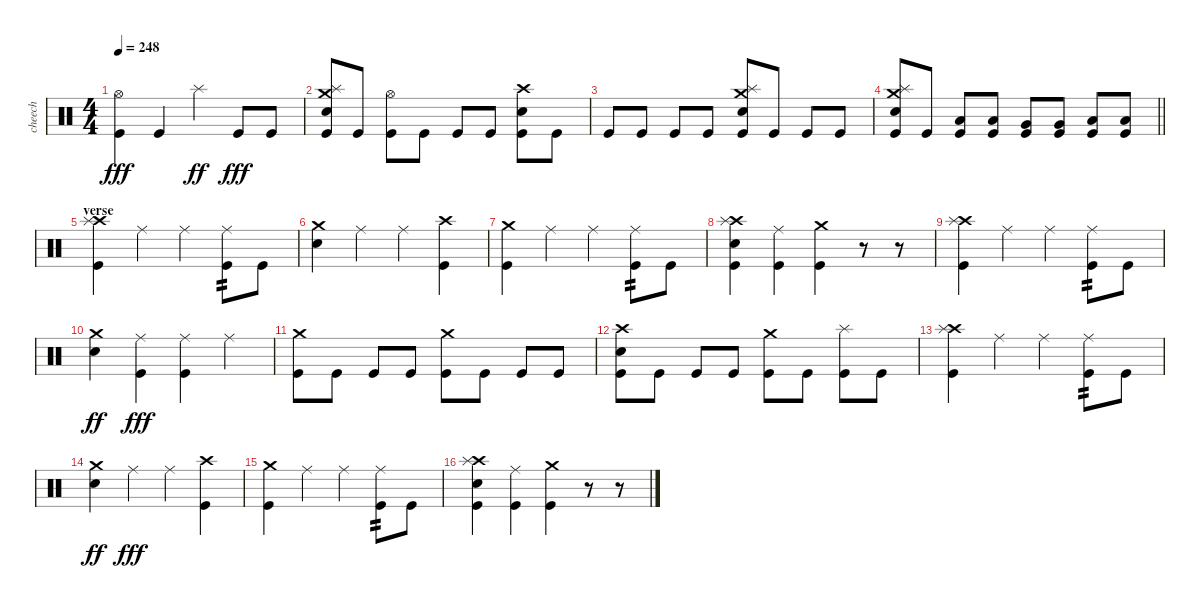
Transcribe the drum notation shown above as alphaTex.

\track ("cheech" "cheech") {instrument percussion}
\staff {score}
\articulation defaults
\ts (4 4)
\tempo 248
\clef neutral
\ks c
("Hi-Hat (open)" "Kick (hit)").4{dy fff} "Kick (hit)".4 "Splash (hit)".4{dy ff} "Kick (hit)".8{dy fff} "Kick (hit)".8 |
("Crash medium (hit)" "Splash (hit)" "Electric Snare (hit)" "Kick (hit)").8 "Kick (hit)".8 ("Hi-Hat (open)" "Kick (hit)").8 "Kick (hit)".8 "Kick (hit)".8 "Kick (hit)".8 ("Crash high (hit)" "Electric Snare (hit)" "Kick (hit)").8 "Kick (hit)".8 |
"Kick (hit)".8 "Kick (hit)".8 "Kick (hit)".8 "Kick (hit)".8 ("Crash medium (hit)" "Splash (hit)" "Electric Snare (hit)" "Kick (hit)").8 "Kick (hit)".8 "Kick (hit)".8 "Kick (hit)".8 |
\barLineRight lightlight
("Crash medium (hit)" "Splash (hit)" "Electric Snare (hit)" "Kick (hit)").8 "Kick (hit)".8 ("Low Tom (hit)" "Kick (hit)").8 ("Low Tom (hit)" "Kick (hit)").8 ("Very Low Tom (hit)" "Kick (hit)").8 ("Very Low Tom (hit)" "Kick (hit)").8 ("Low Floor Tom (hit)" "Kick (hit)").8 ("Low Floor Tom (hit)" "Kick (hit)").8 |
\section ("" "verse")
("Crash high (hit)" "Splash (hit)" "Kick (hit)").4 "Ride (middle)".4 "Ride (middle)".4 ("Ride (middle)" "Kick (hit)").8{tp 2} "Kick (hit)".8 |
("Crash medium (hit)" "Electric Snare (hit)").4 "Ride (middle)".4 "Ride (middle)".4 ("Crash high (hit)" "Kick (hit)").4 |
("Crash medium (hit)" "Kick (hit)").4 "Ride (middle)".4 "Ride (middle)".4 ("Ride (middle)" "Kick (hit)").8{tp 2} "Kick (hit)".8 |
("Crash high (hit)" "Splash (hit)" "Electric Snare (hit)" "Kick (hit)").4 ("Ride (middle)" "Kick (hit)").4 ("Crash medium (hit)" "Kick (hit)").4 r.8 r.8 |
("Crash high (hit)" "Splash (hit)" "Kick (hit)").4 "Ride (middle)".4 "Ride (middle)".4 ("Ride (middle)" "Kick (hit)").8{tp 2} "Kick (hit)".8 |
("Crash medium (hit)" "Electric Snare (hit)").4{dy ff} ("Ride (middle)" "Kick (hit)").4{dy fff} ("Ride (middle)" "Kick (hit)").4 "Ride (middle)".4 |
("Crash medium (hit)" "Kick (hit)").8 "Kick (hit)".8 "Kick (hit)".8 "Kick (hit)".8 ("Crash medium (hit)" "Kick (hit)").8 "Kick (hit)".8 "Kick (hit)".8 "Kick (hit)".8 |
("Crash high (hit)" "Electric Snare (hit)" "Kick (hit)").8 "Kick (hit)".8 "Kick (hit)".8 "Kick (hit)".8 ("Crash medium (hit)" "Kick (hit)").8 "Kick (hit)".8 ("Splash (hit)" "Kick (hit)").8 "Kick (hit)".8 |
("Crash high (hit)" "Splash (hit)" "Kick (hit)").4 "Ride (middle)".4 "Ride (middle)".4 ("Ride (middle)" "Kick (hit)").8{tp 2} "Kick (hit)".8 |
("Crash medium (hit)" "Electric Snare (hit)").4{dy ff} "Ride (middle)".4{dy fff} "Ride (middle)".4 ("Crash high (hit)" "Kick (hit)").4 |
("Crash medium (hit)" "Kick (hit)").4 "Ride (middle)".4 "Ride (middle)".4 ("Ride (middle)" "Kick (hit)").8{tp 2} "Kick (hit)".8 |
("Crash high (hit)" "Splash (hit)" "Electric Snare (hit)" "Kick (hit)").4 ("Ride (middle)" "Kick (hit)").4 ("Crash medium (hit)" "Kick (hit)").4 r.8 r.8
